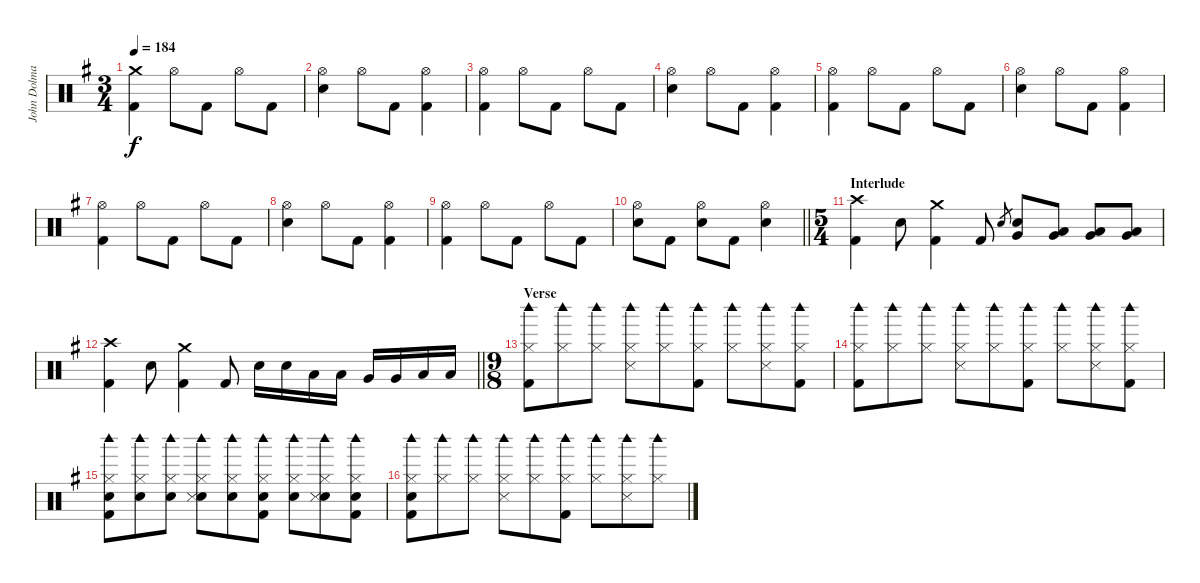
\track ("John Dolmayan [Drums]" "John Dolma") {instrument percussion}
\staff {score}
\articulation defaults
\ts (3 4)
\tempo 184
\clef neutral
\ks eminor
("Crash medium (hit)" "Kick (hit) 2").4{dy f} "Hi-Hat (open)".8 "Kick (hit) 2".8 "Hi-Hat (open)".8 "Kick (hit) 2".8 |
("Hi-Hat (open)" "Electric Snare (hit)").4 "Hi-Hat (open)".8 "Kick (hit) 2".8 ("Hi-Hat (open)" "Kick (hit) 2").4 |
("Hi-Hat (open)" "Kick (hit) 2").4 "Hi-Hat (open)".8 "Kick (hit) 2".8 "Hi-Hat (open)".8 "Kick (hit) 2".8 |
("Hi-Hat (open)" "Electric Snare (hit)").4 "Hi-Hat (open)".8 "Kick (hit) 2".8 ("Hi-Hat (open)" "Kick (hit) 2").4 |
("Hi-Hat (open)" "Kick (hit) 2").4 "Hi-Hat (open)".8 "Kick (hit) 2".8 "Hi-Hat (open)".8 "Kick (hit) 2".8 |
("Hi-Hat (open)" "Electric Snare (hit)").4 "Hi-Hat (open)".8 "Kick (hit) 2".8 ("Hi-Hat (open)" "Kick (hit) 2").4 |
("Hi-Hat (open)" "Kick (hit) 2").4 "Hi-Hat (open)".8 "Kick (hit) 2".8 "Hi-Hat (open)".8 "Kick (hit) 2".8 |
("Hi-Hat (open)" "Electric Snare (hit)").4 "Hi-Hat (open)".8 "Kick (hit) 2".8 ("Hi-Hat (open)" "Kick (hit) 2").4 |
("Hi-Hat (open)" "Kick (hit) 2").4 "Hi-Hat (open)".8 "Kick (hit) 2".8 "Hi-Hat (open)".8 "Kick (hit) 2".8 |
\barLineRight lightlight
("Hi-Hat (open)" "Electric Snare (hit)").8 "Kick (hit) 2".8 ("Hi-Hat (open)" "Electric Snare (hit)").8 "Kick (hit) 2".8 ("Hi-Hat (open)" "Electric Snare (hit)").4 |
\ts (5 4)
\section ("" "Interlude")
("Crash high (hit)" "Kick (hit) 2").4 "Electric Snare (hit)".8 ("Crash medium (hit)" "Kick (hit) 2").4 "Kick (hit) 2".8 "Electric Snare (hit)".8{gr} ("Very Low Tom (hit)" "Electric Snare (hit)").8 ("Low Tom (hit)" "Very Low Tom (hit)").8 ("Very Low Tom (hit)" "Low Floor Tom (hit)").8 ("Very Low Tom (hit)" "Low Floor Tom (hit)").8 |
\barLineRight lightlight
("Crash high (hit)" "Kick (hit) 2").4 "Electric Snare (hit)".8 ("Crash medium (hit)" "Kick (hit) 2").4 "Kick (hit) 2".8 "Electric Snare (hit)".16 "Electric Snare (hit)".16 "Low Tom (hit)".16 "Low Tom (hit)".16 "Very Low Tom (hit)".16 "Very Low Tom (hit)".16 "Low Floor Tom (hit)".16 "Low Floor Tom (hit)".16 |
\ts (9 8)
\section ("" "Verse")
("Woodblock high (hit)" "Hi-Hat (closed)" "Kick (hit) 2").8 ("Woodblock high (hit)" "Hi-Hat (closed)").8 ("Woodblock high (hit)" "Hi-Hat (closed)").8 ("Woodblock high (hit)" "Hi-Hat (closed)" "Snare (side stick) 3").8 ("Woodblock high (hit)" "Hi-Hat (closed)").8 ("Woodblock high (hit)" "Hi-Hat (closed)" "Kick (hit) 2").8 ("Woodblock high (hit)" "Hi-Hat (closed)").8 ("Woodblock high (hit)" "Hi-Hat (closed)" "Snare (side stick) 3").8 ("Woodblock high (hit)" "Hi-Hat (closed)" "Kick (hit) 2").8 |
("Woodblock high (hit)" "Hi-Hat (closed)" "Kick (hit) 2").8 ("Woodblock high (hit)" "Hi-Hat (closed)").8 ("Woodblock high (hit)" "Hi-Hat (closed)").8 ("Woodblock high (hit)" "Hi-Hat (closed)" "Snare (side stick) 3").8 ("Woodblock high (hit)" "Hi-Hat (closed)").8 ("Woodblock high (hit)" "Hi-Hat (closed)" "Kick (hit) 2").8 ("Woodblock high (hit)" "Hi-Hat (closed)").8 ("Woodblock high (hit)" "Hi-Hat (closed)" "Snare (side stick) 3").8 ("Woodblock high (hit)" "Hi-Hat (closed)" "Kick (hit) 2").8 |
("Woodblock high (hit)" "Hand Clap (hit)" "Hi-Hat (closed)" "Kick (hit) 2").8 ("Woodblock high (hit)" "Hand Clap (hit)" "Hi-Hat (closed)").8 ("Woodblock high (hit)" "Hand Clap (hit)" "Hi-Hat (closed)").8 ("Woodblock high (hit)" "Hand Clap (hit)" "Hi-Hat (closed)" "Snare (side stick) 3").8 ("Woodblock high (hit)" "Hand Clap (hit)" "Hi-Hat (closed)").8 ("Woodblock high (hit)" "Hand Clap (hit)" "Hi-Hat (closed)" "Kick (hit) 2").8 ("Woodblock high (hit)" "Hand Clap (hit)" "Hi-Hat (closed)").8 ("Woodblock high (hit)" "Hand Clap (hit)" "Hi-Hat (closed)" "Snare (side stick) 3").8 ("Woodblock high (hit)" "Hand Clap (hit)" "Hi-Hat (closed)" "Kick (hit) 2").8 |
("Woodblock high (hit)" "Hand Clap (hit)" "Hi-Hat (closed)" "Kick (hit) 2").8 ("Woodblock high (hit)" "Hi-Hat (closed)").8 ("Woodblock high (hit)" "Hi-Hat (closed)").8 ("Woodblock high (hit)" "Hi-Hat (closed)" "Snare (side stick) 3").8 ("Woodblock high (hit)" "Hi-Hat (closed)").8 ("Woodblock high (hit)" "Hi-Hat (closed)" "Kick (hit) 2").8 ("Woodblock high (hit)" "Hi-Hat (closed)").8 ("Woodblock high (hit)" "Hi-Hat (closed)" "Snare (side stick) 3").8 ("Woodblock high (hit)" "Hi-Hat (closed)").8
